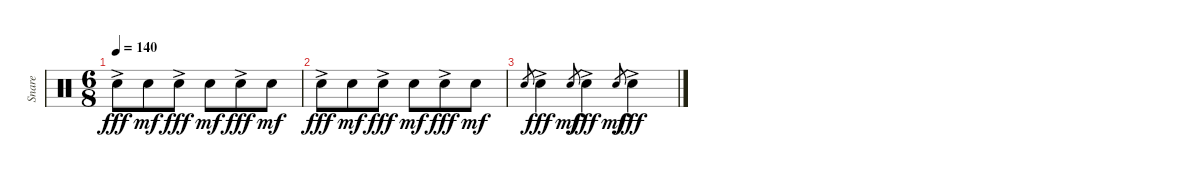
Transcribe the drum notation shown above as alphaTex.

\track ("Snare" "Snare") {instrument percussion}
\staff {score}
\articulation defaults
\ts (6 8)
\tempo 140
\clef neutral
\ks c "Electric Snare (hit)"{ac}.8{dy fff} "Electric Snare (hit)".8{dy mf} "Electric Snare (hit)"{ac}.8{dy fff} "Electric Snare (hit)".8{dy mf} "Electric Snare (hit)"{ac}.8{dy fff} "Electric Snare (hit)".8{dy mf}
|
"Electric Snare (hit)"{ac}.8{dy fff} "Electric Snare (hit)".8{dy mf} "Electric Snare (hit)"{ac}.8{dy fff} "Electric Snare (hit)".8{dy mf} "Electric Snare (hit)"{ac}.8{dy fff} "Electric Snare (hit)".8{dy mf} |
"Electric Snare (hit)".8{gr} "Electric Snare (hit)"{ac}.4{dy fff} "Electric Snare (hit)".8{gr dy mf} "Electric Snare (hit)"{ac}.4{dy fff} "Electric Snare (hit)".8{gr dy mf} "Electric Snare (hit)"{ac}.4{dy fff}
